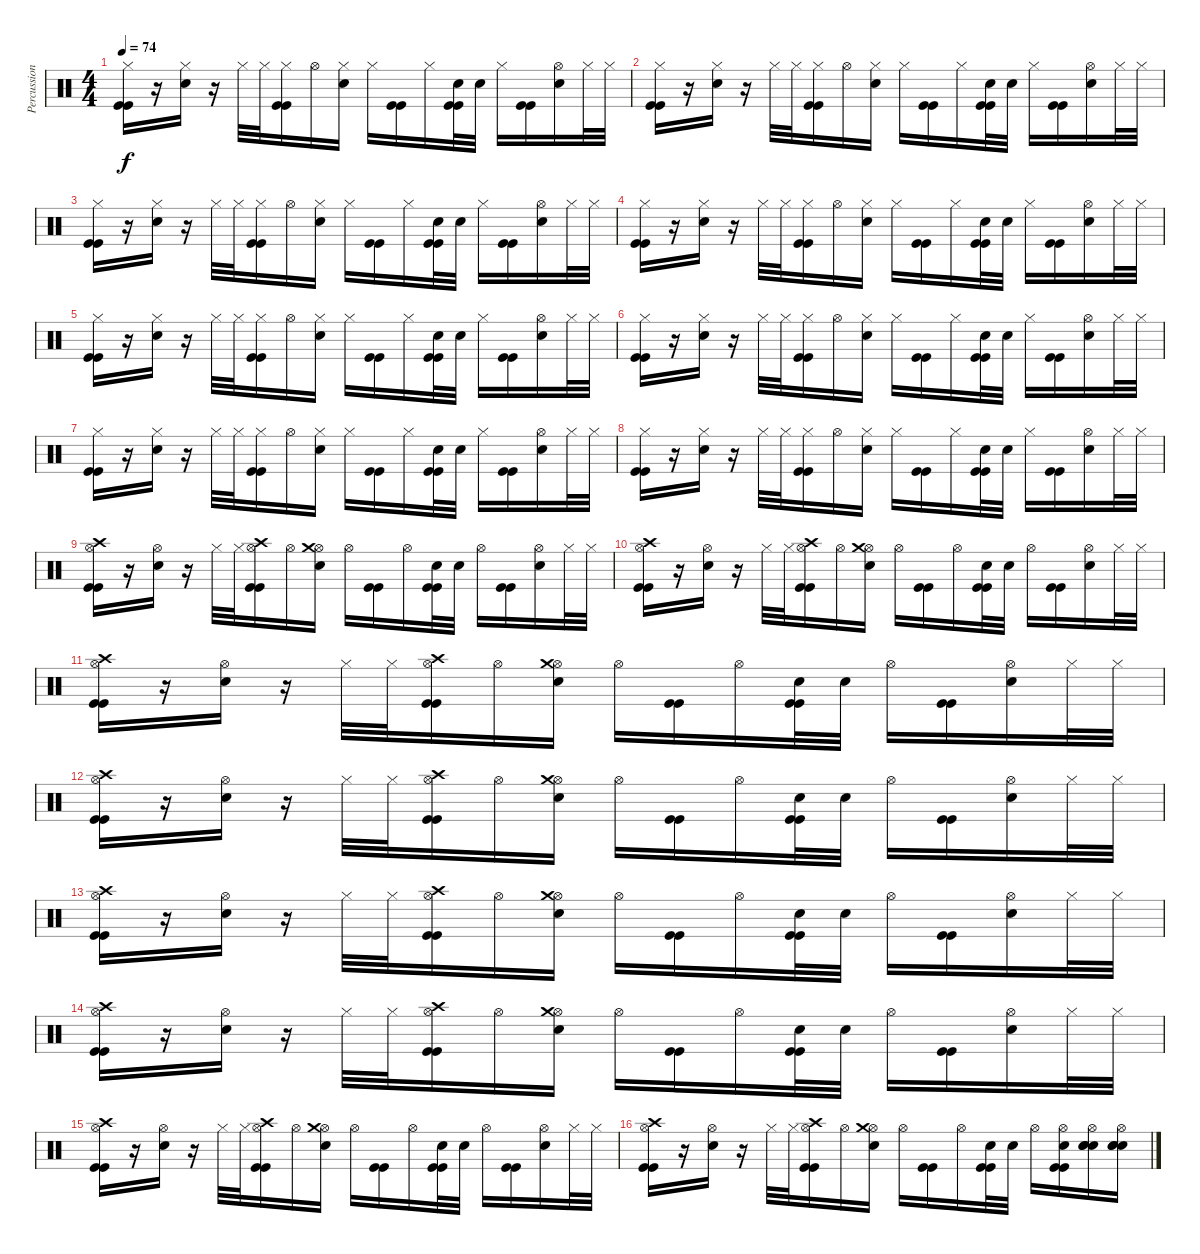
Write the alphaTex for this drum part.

\track ("Percussion" "Percussion") {instrument percussion}
\staff {score}
\articulation defaults
\ts (4 4)
\tempo 74
\clef neutral
\ks c
("Hi-Hat (closed)" "Kick (hit)" "Kick (hit)").16{dy f} r.16 ("Hi-Hat (closed)" "Snare (hit) 2").16 r.16 "Hi-Hat (closed)".32 "Hi-Hat (closed)".32 ("Hi-Hat (closed)" "Kick (hit)" "Kick (hit)").16 "Hi-Hat (open)".16 ("Hi-Hat (closed)" "Snare (hit) 2").16 "Hi-Hat (closed)".16 ("Kick (hit)" "Kick (hit)").16 "Hi-Hat (closed)".16 ("Snare (hit) 2" "Kick (hit)" "Kick (hit)").32 "Snare (hit) 2".32 "Hi-Hat (closed)".16 ("Kick (hit)" "Kick (hit)").16 ("Hi-Hat (open)" "Snare (hit) 2").16 "Hi-Hat (closed)".32 "Hi-Hat (closed)".32 |
("Hi-Hat (closed)" "Kick (hit)" "Kick (hit)").16 r.16 ("Hi-Hat (closed)" "Snare (hit) 2").16 r.16 "Hi-Hat (closed)".32 "Hi-Hat (closed)".32 ("Hi-Hat (closed)" "Kick (hit)" "Kick (hit)").16 "Hi-Hat (open)".16 ("Hi-Hat (closed)" "Snare (hit) 2").16 "Hi-Hat (closed)".16 ("Kick (hit)" "Kick (hit)").16 "Hi-Hat (closed)".16 ("Snare (hit) 2" "Kick (hit)" "Kick (hit)").32 "Snare (hit) 2".32 "Hi-Hat (closed)".16 ("Kick (hit)" "Kick (hit)").16 ("Hi-Hat (open)" "Snare (hit) 2").16 "Hi-Hat (closed)".32 "Hi-Hat (closed)".32 |
("Hi-Hat (closed)" "Kick (hit)" "Kick (hit)").16 r.16 ("Hi-Hat (closed)" "Snare (hit) 2").16 r.16 "Hi-Hat (closed)".32 "Hi-Hat (closed)".32 ("Hi-Hat (closed)" "Kick (hit)" "Kick (hit)").16 "Hi-Hat (open)".16 ("Hi-Hat (closed)" "Snare (hit) 2").16 "Hi-Hat (closed)".16 ("Kick (hit)" "Kick (hit)").16 "Hi-Hat (closed)".16 ("Snare (hit) 2" "Kick (hit)" "Kick (hit)").32 "Snare (hit) 2".32 "Hi-Hat (closed)".16 ("Kick (hit)" "Kick (hit)").16 ("Hi-Hat (open)" "Snare (hit) 2").16 "Hi-Hat (closed)".32 "Hi-Hat (closed)".32 |
("Hi-Hat (closed)" "Kick (hit)" "Kick (hit)").16 r.16 ("Hi-Hat (closed)" "Snare (hit) 2").16 r.16 "Hi-Hat (closed)".32 "Hi-Hat (closed)".32 ("Hi-Hat (closed)" "Kick (hit)" "Kick (hit)").16 "Hi-Hat (open)".16 ("Hi-Hat (closed)" "Snare (hit) 2").16 "Hi-Hat (closed)".16 ("Kick (hit)" "Kick (hit)").16 "Hi-Hat (closed)".16 ("Snare (hit) 2" "Kick (hit)" "Kick (hit)").32 "Snare (hit) 2".32 "Hi-Hat (closed)".16 ("Kick (hit)" "Kick (hit)").16 ("Hi-Hat (open)" "Snare (hit) 2").16 "Hi-Hat (closed)".32 "Hi-Hat (closed)".32 |
("Hi-Hat (closed)" "Kick (hit)" "Kick (hit)").16 r.16 ("Hi-Hat (closed)" "Snare (hit) 2").16 r.16 "Hi-Hat (closed)".32 "Hi-Hat (closed)".32 ("Hi-Hat (closed)" "Kick (hit)" "Kick (hit)").16 "Hi-Hat (open)".16 ("Hi-Hat (closed)" "Snare (hit) 2").16 "Hi-Hat (closed)".16 ("Kick (hit)" "Kick (hit)").16 "Hi-Hat (closed)".16 ("Snare (hit) 2" "Kick (hit)" "Kick (hit)").32 "Snare (hit) 2".32 "Hi-Hat (closed)".16 ("Kick (hit)" "Kick (hit)").16 ("Hi-Hat (open)" "Snare (hit) 2").16 "Hi-Hat (closed)".32 "Hi-Hat (closed)".32 |
("Hi-Hat (closed)" "Kick (hit)" "Kick (hit)").16 r.16 ("Hi-Hat (closed)" "Snare (hit) 2").16 r.16 "Hi-Hat (closed)".32 "Hi-Hat (closed)".32 ("Hi-Hat (closed)" "Kick (hit)" "Kick (hit)").16 "Hi-Hat (open)".16 ("Hi-Hat (closed)" "Snare (hit) 2").16 "Hi-Hat (closed)".16 ("Kick (hit)" "Kick (hit)").16 "Hi-Hat (closed)".16 ("Snare (hit) 2" "Kick (hit)" "Kick (hit)").32 "Snare (hit) 2".32 "Hi-Hat (closed)".16 ("Kick (hit)" "Kick (hit)").16 ("Hi-Hat (open)" "Snare (hit) 2").16 "Hi-Hat (closed)".32 "Hi-Hat (closed)".32 |
("Hi-Hat (closed)" "Kick (hit)" "Kick (hit)").16 r.16 ("Hi-Hat (closed)" "Snare (hit) 2").16 r.16 "Hi-Hat (closed)".32 "Hi-Hat (closed)".32 ("Hi-Hat (closed)" "Kick (hit)" "Kick (hit)").16 "Hi-Hat (open)".16 ("Hi-Hat (closed)" "Snare (hit) 2").16 "Hi-Hat (closed)".16 ("Kick (hit)" "Kick (hit)").16 "Hi-Hat (closed)".16 ("Snare (hit) 2" "Kick (hit)" "Kick (hit)").32 "Snare (hit) 2".32 "Hi-Hat (closed)".16 ("Kick (hit)" "Kick (hit)").16 ("Hi-Hat (open)" "Snare (hit) 2").16 "Hi-Hat (closed)".32 "Hi-Hat (closed)".32 |
("Hi-Hat (closed)" "Kick (hit)" "Kick (hit)").16 r.16 ("Hi-Hat (closed)" "Snare (hit) 2").16 r.16 "Hi-Hat (closed)".32 "Hi-Hat (closed)".32 ("Hi-Hat (closed)" "Kick (hit)" "Kick (hit)").16 "Hi-Hat (open)".16 ("Hi-Hat (closed)" "Snare (hit) 2").16 "Hi-Hat (closed)".16 ("Kick (hit)" "Kick (hit)").16 "Hi-Hat (closed)".16 ("Snare (hit) 2" "Kick (hit)" "Kick (hit)").32 "Snare (hit) 2".32 "Hi-Hat (closed)".16 ("Kick (hit)" "Kick (hit)").16 ("Hi-Hat (open)" "Snare (hit) 2").16 "Hi-Hat (closed)".32 "Hi-Hat (closed)".32 |
("Hi-Hat (open)" "Crash high (hit)" "Kick (hit)" "Kick (hit)").16 r.16 ("Hi-Hat (open)" "Snare (hit) 2").16 r.16 "Hi-Hat (closed)".32 "Hi-Hat (closed)".32 ("Hi-Hat (open)" "Crash high (hit)" "Kick (hit)" "Kick (hit)").16 "Hi-Hat (open)".16 ("Hi-Hat (open)" "Crash medium (hit)" "Snare (hit) 2").16 "Hi-Hat (open)".16 ("Kick (hit)" "Kick (hit)").16 "Hi-Hat (open)".16 ("Snare (hit) 2" "Kick (hit)" "Kick (hit)").32 "Snare (hit) 2".32 "Hi-Hat (open)".16 ("Kick (hit)" "Kick (hit)").16 ("Hi-Hat (open)" "Snare (hit) 2").16 "Hi-Hat (closed)".32 "Hi-Hat (closed)".32 |
("Hi-Hat (open)" "Crash high (hit)" "Kick (hit)" "Kick (hit)").16 r.16 ("Hi-Hat (open)" "Snare (hit) 2").16 r.16 "Hi-Hat (closed)".32 "Hi-Hat (closed)".32 ("Hi-Hat (open)" "Crash high (hit)" "Kick (hit)" "Kick (hit)").16 "Hi-Hat (open)".16 ("Hi-Hat (open)" "Crash medium (hit)" "Snare (hit) 2").16 "Hi-Hat (open)".16 ("Kick (hit)" "Kick (hit)").16 "Hi-Hat (open)".16 ("Snare (hit) 2" "Kick (hit)" "Kick (hit)").32 "Snare (hit) 2".32 "Hi-Hat (open)".16 ("Kick (hit)" "Kick (hit)").16 ("Hi-Hat (open)" "Snare (hit) 2").16 "Hi-Hat (closed)".32 "Hi-Hat (closed)".32 |
("Hi-Hat (open)" "Crash high (hit)" "Kick (hit)" "Kick (hit)").16 r.16 ("Hi-Hat (open)" "Snare (hit) 2").16 r.16 "Hi-Hat (closed)".32 "Hi-Hat (closed)".32 ("Hi-Hat (open)" "Crash high (hit)" "Kick (hit)" "Kick (hit)").16 "Hi-Hat (open)".16 ("Hi-Hat (open)" "Crash medium (hit)" "Snare (hit) 2").16 "Hi-Hat (open)".16 ("Kick (hit)" "Kick (hit)").16 "Hi-Hat (open)".16 ("Snare (hit) 2" "Kick (hit)" "Kick (hit)").32 "Snare (hit) 2".32 "Hi-Hat (open)".16 ("Kick (hit)" "Kick (hit)").16 ("Hi-Hat (open)" "Snare (hit) 2").16 "Hi-Hat (closed)".32 "Hi-Hat (closed)".32 |
("Hi-Hat (open)" "Crash high (hit)" "Kick (hit)" "Kick (hit)").16 r.16 ("Hi-Hat (open)" "Snare (hit) 2").16 r.16 "Hi-Hat (closed)".32 "Hi-Hat (closed)".32 ("Hi-Hat (open)" "Crash high (hit)" "Kick (hit)" "Kick (hit)").16 "Hi-Hat (open)".16 ("Hi-Hat (open)" "Crash medium (hit)" "Snare (hit) 2").16 "Hi-Hat (open)".16 ("Kick (hit)" "Kick (hit)").16 "Hi-Hat (open)".16 ("Snare (hit) 2" "Kick (hit)" "Kick (hit)").32 "Snare (hit) 2".32 "Hi-Hat (open)".16 ("Kick (hit)" "Kick (hit)").16 ("Hi-Hat (open)" "Snare (hit) 2").16 "Hi-Hat (closed)".32 "Hi-Hat (closed)".32 |
("Hi-Hat (open)" "Crash high (hit)" "Kick (hit)" "Kick (hit)").16 r.16 ("Hi-Hat (open)" "Snare (hit) 2").16 r.16 "Hi-Hat (closed)".32 "Hi-Hat (closed)".32 ("Hi-Hat (open)" "Crash high (hit)" "Kick (hit)" "Kick (hit)").16 "Hi-Hat (open)".16 ("Hi-Hat (open)" "Crash medium (hit)" "Snare (hit) 2").16 "Hi-Hat (open)".16 ("Kick (hit)" "Kick (hit)").16 "Hi-Hat (open)".16 ("Snare (hit) 2" "Kick (hit)" "Kick (hit)").32 "Snare (hit) 2".32 "Hi-Hat (open)".16 ("Kick (hit)" "Kick (hit)").16 ("Hi-Hat (open)" "Snare (hit) 2").16 "Hi-Hat (closed)".32 "Hi-Hat (closed)".32 |
("Hi-Hat (open)" "Crash high (hit)" "Kick (hit)" "Kick (hit)").16 r.16 ("Hi-Hat (open)" "Snare (hit) 2").16 r.16 "Hi-Hat (closed)".32 "Hi-Hat (closed)".32 ("Hi-Hat (open)" "Crash high (hit)" "Kick (hit)" "Kick (hit)").16 "Hi-Hat (open)".16 ("Hi-Hat (open)" "Crash medium (hit)" "Snare (hit) 2").16 "Hi-Hat (open)".16 ("Kick (hit)" "Kick (hit)").16 "Hi-Hat (open)".16 ("Snare (hit) 2" "Kick (hit)" "Kick (hit)").32 "Snare (hit) 2".32 "Hi-Hat (open)".16 ("Kick (hit)" "Kick (hit)").16 ("Hi-Hat (open)" "Snare (hit) 2").16 "Hi-Hat (closed)".32 "Hi-Hat (closed)".32 |
("Hi-Hat (open)" "Crash high (hit)" "Kick (hit)" "Kick (hit)").16 r.16 ("Hi-Hat (open)" "Snare (hit) 2").16 r.16 "Hi-Hat (closed)".32 "Hi-Hat (closed)".32 ("Hi-Hat (open)" "Crash high (hit)" "Kick (hit)" "Kick (hit)").16 "Hi-Hat (open)".16 ("Hi-Hat (open)" "Crash medium (hit)" "Snare (hit) 2").16 "Hi-Hat (open)".16 ("Kick (hit)" "Kick (hit)").16 "Hi-Hat (open)".16 ("Snare (hit) 2" "Kick (hit)" "Kick (hit)").32 "Snare (hit) 2".32 "Hi-Hat (open)".16 ("Kick (hit)" "Kick (hit)").16 ("Hi-Hat (open)" "Snare (hit) 2").16 "Hi-Hat (closed)".32 "Hi-Hat (closed)".32 |
("Hi-Hat (open)" "Crash high (hit)" "Kick (hit)" "Kick (hit)").16 r.16 ("Hi-Hat (open)" "Snare (hit) 2").16 r.16 "Hi-Hat (closed)".32 "Hi-Hat (closed)".32 ("Hi-Hat (open)" "Crash high (hit)" "Kick (hit)" "Kick (hit)").16 "Hi-Hat (open)".16 ("Hi-Hat (open)" "Crash medium (hit)" "Snare (hit) 2").16 "Hi-Hat (open)".16 ("Kick (hit)" "Kick (hit)").16 "Hi-Hat (open)".16 ("Snare (hit) 2" "Kick (hit)" "Kick (hit)").32 "Snare (hit) 2".32 "Hi-Hat (open)".16 ("Hi-Hat (open)" "Snare (hit) 2" "Kick (hit)" "Kick (hit)").16 ("Hi-Hat (open)" "Snare (hit) 2" "Snare (hit) 2" "Snare (hit) 2").16 ("Hi-Hat (open)" "Snare (hit) 2" "Snare (hit) 2" "Snare (hit) 2").16
